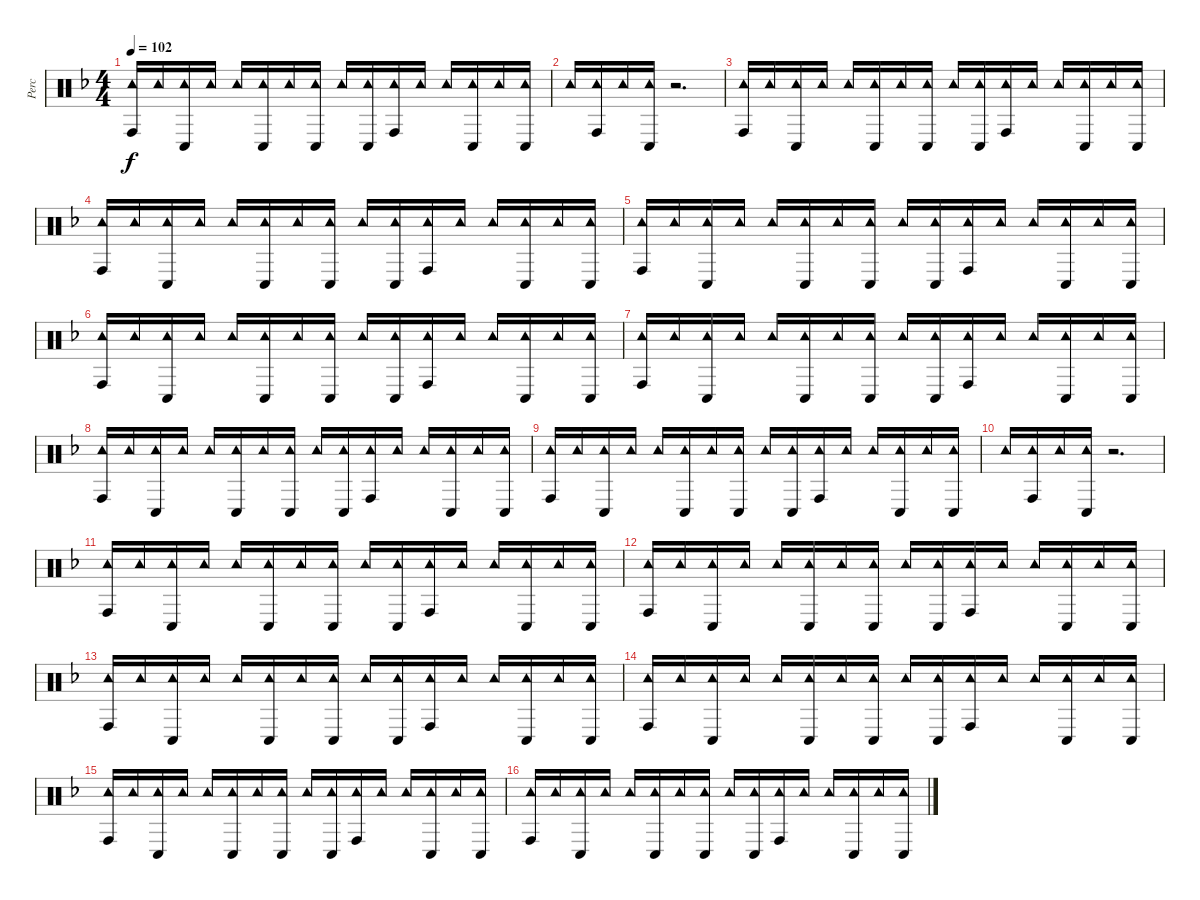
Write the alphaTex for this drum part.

\track ("Perc" "Perc") {instrument percussion}
\staff {score}
\articulation defaults
\ts (4 4)
\tempo 102
\clef neutral
\ks f
("Tambourine (hit)" "Conga high (hit)").16{dy f} "Tambourine (hit)".16 ("Tambourine (hit)" "Conga low (hit)").16 "Tambourine (hit)".16 "Tambourine (hit)".16 ("Tambourine (hit)" "Conga low (hit)").16 "Tambourine (hit)".16 ("Tambourine (hit)" "Conga low (hit)").16 "Tambourine (hit)".16 ("Tambourine (hit)" "Conga low (hit)").16 ("Tambourine (hit)" "Conga high (hit)").16 "Tambourine (hit)".16 "Tambourine (hit)".16 ("Tambourine (hit)" "Conga low (hit)").16 "Tambourine (hit)".16 ("Tambourine (hit)" "Conga low (hit)").16 |
"Tambourine (hit)".16 ("Tambourine (hit)" "Conga high (hit)").16 "Tambourine (hit)".16 ("Tambourine (hit)" "Conga low (hit)").16 r.2{d} |
("Tambourine (hit)" "Conga high (hit)").16 "Tambourine (hit)".16 ("Tambourine (hit)" "Conga low (hit)").16 "Tambourine (hit)".16 "Tambourine (hit)".16 ("Tambourine (hit)" "Conga low (hit)").16 "Tambourine (hit)".16 ("Tambourine (hit)" "Conga low (hit)").16 "Tambourine (hit)".16 ("Tambourine (hit)" "Conga low (hit)").16 ("Tambourine (hit)" "Conga high (hit)").16 "Tambourine (hit)".16 "Tambourine (hit)".16 ("Tambourine (hit)" "Conga low (hit)").16 "Tambourine (hit)".16 ("Tambourine (hit)" "Conga low (hit)").16 |
("Tambourine (hit)" "Conga high (hit)").16 "Tambourine (hit)".16 ("Tambourine (hit)" "Conga low (hit)").16 "Tambourine (hit)".16 "Tambourine (hit)".16 ("Tambourine (hit)" "Conga low (hit)").16 "Tambourine (hit)".16 ("Tambourine (hit)" "Conga low (hit)").16 "Tambourine (hit)".16 ("Tambourine (hit)" "Conga low (hit)").16 ("Tambourine (hit)" "Conga high (hit)").16 "Tambourine (hit)".16 "Tambourine (hit)".16 ("Tambourine (hit)" "Conga low (hit)").16 "Tambourine (hit)".16 ("Tambourine (hit)" "Conga low (hit)").16 |
("Tambourine (hit)" "Conga high (hit)").16 "Tambourine (hit)".16 ("Tambourine (hit)" "Conga low (hit)").16 "Tambourine (hit)".16 "Tambourine (hit)".16 ("Tambourine (hit)" "Conga low (hit)").16 "Tambourine (hit)".16 ("Tambourine (hit)" "Conga low (hit)").16 "Tambourine (hit)".16 ("Tambourine (hit)" "Conga low (hit)").16 ("Tambourine (hit)" "Conga high (hit)").16 "Tambourine (hit)".16 "Tambourine (hit)".16 ("Tambourine (hit)" "Conga low (hit)").16 "Tambourine (hit)".16 ("Tambourine (hit)" "Conga low (hit)").16 |
("Tambourine (hit)" "Conga high (hit)").16 "Tambourine (hit)".16 ("Tambourine (hit)" "Conga low (hit)").16 "Tambourine (hit)".16 "Tambourine (hit)".16 ("Tambourine (hit)" "Conga low (hit)").16 "Tambourine (hit)".16 ("Tambourine (hit)" "Conga low (hit)").16 "Tambourine (hit)".16 ("Tambourine (hit)" "Conga low (hit)").16 ("Tambourine (hit)" "Conga high (hit)").16 "Tambourine (hit)".16 "Tambourine (hit)".16 ("Tambourine (hit)" "Conga low (hit)").16 "Tambourine (hit)".16 ("Tambourine (hit)" "Conga low (hit)").16 |
("Tambourine (hit)" "Conga high (hit)").16 "Tambourine (hit)".16 ("Tambourine (hit)" "Conga low (hit)").16 "Tambourine (hit)".16 "Tambourine (hit)".16 ("Tambourine (hit)" "Conga low (hit)").16 "Tambourine (hit)".16 ("Tambourine (hit)" "Conga low (hit)").16 "Tambourine (hit)".16 ("Tambourine (hit)" "Conga low (hit)").16 ("Tambourine (hit)" "Conga high (hit)").16 "Tambourine (hit)".16 "Tambourine (hit)".16 ("Tambourine (hit)" "Conga low (hit)").16 "Tambourine (hit)".16 ("Tambourine (hit)" "Conga low (hit)").16 |
("Tambourine (hit)" "Conga high (hit)").16 "Tambourine (hit)".16 ("Tambourine (hit)" "Conga low (hit)").16 "Tambourine (hit)".16 "Tambourine (hit)".16 ("Tambourine (hit)" "Conga low (hit)").16 "Tambourine (hit)".16 ("Tambourine (hit)" "Conga low (hit)").16 "Tambourine (hit)".16 ("Tambourine (hit)" "Conga low (hit)").16 ("Tambourine (hit)" "Conga high (hit)").16 "Tambourine (hit)".16 "Tambourine (hit)".16 ("Tambourine (hit)" "Conga low (hit)").16 "Tambourine (hit)".16 ("Tambourine (hit)" "Conga low (hit)").16 |
("Tambourine (hit)" "Conga high (hit)").16 "Tambourine (hit)".16 ("Tambourine (hit)" "Conga low (hit)").16 "Tambourine (hit)".16 "Tambourine (hit)".16 ("Tambourine (hit)" "Conga low (hit)").16 "Tambourine (hit)".16 ("Tambourine (hit)" "Conga low (hit)").16 "Tambourine (hit)".16 ("Tambourine (hit)" "Conga low (hit)").16 ("Tambourine (hit)" "Conga high (hit)").16 "Tambourine (hit)".16 "Tambourine (hit)".16 ("Tambourine (hit)" "Conga low (hit)").16 "Tambourine (hit)".16 ("Tambourine (hit)" "Conga low (hit)").16 |
"Tambourine (hit)".16 ("Tambourine (hit)" "Conga high (hit)").16 "Tambourine (hit)".16 ("Tambourine (hit)" "Conga low (hit)").16 r.2{d} |
("Tambourine (hit)" "Conga high (hit)").16 "Tambourine (hit)".16 ("Tambourine (hit)" "Conga low (hit)").16 "Tambourine (hit)".16 "Tambourine (hit)".16 ("Tambourine (hit)" "Conga low (hit)").16 "Tambourine (hit)".16 ("Tambourine (hit)" "Conga low (hit)").16 "Tambourine (hit)".16 ("Tambourine (hit)" "Conga low (hit)").16 ("Tambourine (hit)" "Conga high (hit)").16 "Tambourine (hit)".16 "Tambourine (hit)".16 ("Tambourine (hit)" "Conga low (hit)").16 "Tambourine (hit)".16 ("Tambourine (hit)" "Conga low (hit)").16 |
("Tambourine (hit)" "Conga high (hit)").16 "Tambourine (hit)".16 ("Tambourine (hit)" "Conga low (hit)").16 "Tambourine (hit)".16 "Tambourine (hit)".16 ("Tambourine (hit)" "Conga low (hit)").16 "Tambourine (hit)".16 ("Tambourine (hit)" "Conga low (hit)").16 "Tambourine (hit)".16 ("Tambourine (hit)" "Conga low (hit)").16 ("Tambourine (hit)" "Conga high (hit)").16 "Tambourine (hit)".16 "Tambourine (hit)".16 ("Tambourine (hit)" "Conga low (hit)").16 "Tambourine (hit)".16 ("Tambourine (hit)" "Conga low (hit)").16 |
("Tambourine (hit)" "Conga high (hit)").16 "Tambourine (hit)".16 ("Tambourine (hit)" "Conga low (hit)").16 "Tambourine (hit)".16 "Tambourine (hit)".16 ("Tambourine (hit)" "Conga low (hit)").16 "Tambourine (hit)".16 ("Tambourine (hit)" "Conga low (hit)").16 "Tambourine (hit)".16 ("Tambourine (hit)" "Conga low (hit)").16 ("Tambourine (hit)" "Conga high (hit)").16 "Tambourine (hit)".16 "Tambourine (hit)".16 ("Tambourine (hit)" "Conga low (hit)").16 "Tambourine (hit)".16 ("Tambourine (hit)" "Conga low (hit)").16 |
("Tambourine (hit)" "Conga high (hit)").16 "Tambourine (hit)".16 ("Tambourine (hit)" "Conga low (hit)").16 "Tambourine (hit)".16 "Tambourine (hit)".16 ("Tambourine (hit)" "Conga low (hit)").16 "Tambourine (hit)".16 ("Tambourine (hit)" "Conga low (hit)").16 "Tambourine (hit)".16 ("Tambourine (hit)" "Conga low (hit)").16 ("Tambourine (hit)" "Conga high (hit)").16 "Tambourine (hit)".16 "Tambourine (hit)".16 ("Tambourine (hit)" "Conga low (hit)").16 "Tambourine (hit)".16 ("Tambourine (hit)" "Conga low (hit)").16 |
("Tambourine (hit)" "Conga high (hit)").16 "Tambourine (hit)".16 ("Tambourine (hit)" "Conga low (hit)").16 "Tambourine (hit)".16 "Tambourine (hit)".16 ("Tambourine (hit)" "Conga low (hit)").16 "Tambourine (hit)".16 ("Tambourine (hit)" "Conga low (hit)").16 "Tambourine (hit)".16 ("Tambourine (hit)" "Conga low (hit)").16 ("Tambourine (hit)" "Conga high (hit)").16 "Tambourine (hit)".16 "Tambourine (hit)".16 ("Tambourine (hit)" "Conga low (hit)").16 "Tambourine (hit)".16 ("Tambourine (hit)" "Conga low (hit)").16 |
("Tambourine (hit)" "Conga high (hit)").16 "Tambourine (hit)".16 ("Tambourine (hit)" "Conga low (hit)").16 "Tambourine (hit)".16 "Tambourine (hit)".16 ("Tambourine (hit)" "Conga low (hit)").16 "Tambourine (hit)".16 ("Tambourine (hit)" "Conga low (hit)").16 "Tambourine (hit)".16 ("Tambourine (hit)" "Conga low (hit)").16 ("Tambourine (hit)" "Conga high (hit)").16 "Tambourine (hit)".16 "Tambourine (hit)".16 ("Tambourine (hit)" "Conga low (hit)").16 "Tambourine (hit)".16 ("Tambourine (hit)" "Conga low (hit)").16
